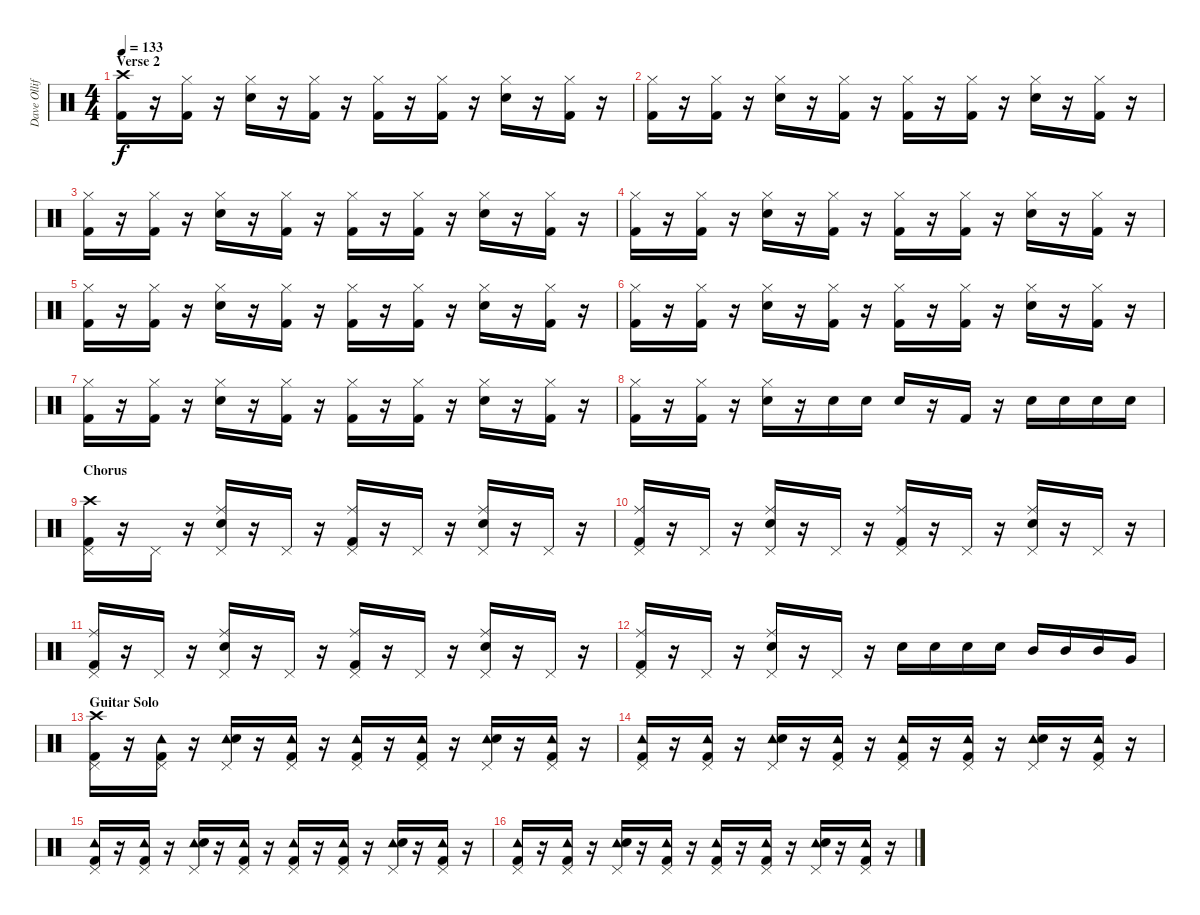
\track ("Dave Olliffe - Drums" "Dave Ollif") {instrument percussion}
\staff {score}
\articulation defaults
\ts (4 4)
\section ("" "Verse 2")
\tempo 133
\clef neutral
\ks c
("Crash high (hit)" "Kick (hit) 2").16{dy f} r.16 ("Hi-Hat (closed)" "Kick (hit) 2").16 r.16 ("Hi-Hat (closed)" "Snare (hit) 2").16 r.16 ("Hi-Hat (closed)" "Kick (hit) 2").16 r.16 ("Hi-Hat (closed)" "Kick (hit) 2").16 r.16 ("Hi-Hat (closed)" "Kick (hit) 2").16 r.16 ("Hi-Hat (closed)" "Snare (hit) 2").16 r.16 ("Hi-Hat (closed)" "Kick (hit) 2").16 r.16 |
("Hi-Hat (closed)" "Kick (hit) 2").16 r.16 ("Hi-Hat (closed)" "Kick (hit) 2").16 r.16 ("Hi-Hat (closed)" "Snare (hit) 2").16 r.16 ("Hi-Hat (closed)" "Kick (hit) 2").16 r.16 ("Hi-Hat (closed)" "Kick (hit) 2").16 r.16 ("Hi-Hat (closed)" "Kick (hit) 2").16 r.16 ("Hi-Hat (closed)" "Snare (hit) 2").16 r.16 ("Hi-Hat (closed)" "Kick (hit) 2").16 r.16 |
("Hi-Hat (closed)" "Kick (hit) 2").16 r.16 ("Hi-Hat (closed)" "Kick (hit) 2").16 r.16 ("Hi-Hat (closed)" "Snare (hit) 2").16 r.16 ("Hi-Hat (closed)" "Kick (hit) 2").16 r.16 ("Hi-Hat (closed)" "Kick (hit) 2").16 r.16 ("Hi-Hat (closed)" "Kick (hit) 2").16 r.16 ("Hi-Hat (closed)" "Snare (hit) 2").16 r.16 ("Hi-Hat (closed)" "Kick (hit) 2").16 r.16 |
("Hi-Hat (closed)" "Kick (hit) 2").16 r.16 ("Hi-Hat (closed)" "Kick (hit) 2").16 r.16 ("Hi-Hat (closed)" "Snare (hit) 2").16 r.16 ("Hi-Hat (closed)" "Kick (hit) 2").16 r.16 ("Hi-Hat (closed)" "Kick (hit) 2").16 r.16 ("Hi-Hat (closed)" "Kick (hit) 2").16 r.16 ("Hi-Hat (closed)" "Snare (hit) 2").16 r.16 ("Hi-Hat (closed)" "Kick (hit) 2").16 r.16 |
("Hi-Hat (closed)" "Kick (hit) 2").16 r.16 ("Hi-Hat (closed)" "Kick (hit) 2").16 r.16 ("Hi-Hat (closed)" "Snare (hit) 2").16 r.16 ("Hi-Hat (closed)" "Kick (hit) 2").16 r.16 ("Hi-Hat (closed)" "Kick (hit) 2").16 r.16 ("Hi-Hat (closed)" "Kick (hit) 2").16 r.16 ("Hi-Hat (closed)" "Snare (hit) 2").16 r.16 ("Hi-Hat (closed)" "Kick (hit) 2").16 r.16 |
("Hi-Hat (closed)" "Kick (hit) 2").16 r.16 ("Hi-Hat (closed)" "Kick (hit) 2").16 r.16 ("Hi-Hat (closed)" "Snare (hit) 2").16 r.16 ("Hi-Hat (closed)" "Kick (hit) 2").16 r.16 ("Hi-Hat (closed)" "Kick (hit) 2").16 r.16 ("Hi-Hat (closed)" "Kick (hit) 2").16 r.16 ("Hi-Hat (closed)" "Snare (hit) 2").16 r.16 ("Hi-Hat (closed)" "Kick (hit) 2").16 r.16 |
("Hi-Hat (closed)" "Kick (hit) 2").16 r.16 ("Hi-Hat (closed)" "Kick (hit) 2").16 r.16 ("Hi-Hat (closed)" "Snare (hit) 2").16 r.16 ("Hi-Hat (closed)" "Kick (hit) 2").16 r.16 ("Hi-Hat (closed)" "Kick (hit) 2").16 r.16 ("Hi-Hat (closed)" "Kick (hit) 2").16 r.16 ("Hi-Hat (closed)" "Snare (hit) 2").16 r.16 ("Hi-Hat (closed)" "Kick (hit) 2").16 r.16 |
("Hi-Hat (closed)" "Kick (hit) 2").16 r.16 ("Hi-Hat (closed)" "Kick (hit) 2").16 r.16 ("Hi-Hat (closed)" "Snare (hit) 2").16 r.16 "Snare (hit) 2".16 "Snare (hit) 2".16 "Snare (hit) 2".16 r.16 "Kick (hit) 2".16 r.16 "Snare (hit) 2".16 "Snare (hit) 2".16 "Snare (hit) 2".16 "Snare (hit) 2".16 |
\section ("" "Chorus")
("Crash high (hit)" "Pedal Hi-Hat (hit)" "Kick (hit) 2").16 r.16 "Pedal Hi-Hat (hit)".16 r.16 ("Ride (middle)" "Pedal Hi-Hat (hit)" "Snare (hit) 2").16 r.16 "Pedal Hi-Hat (hit)".16 r.16 ("Ride (middle)" "Pedal Hi-Hat (hit)" "Kick (hit) 2").16 r.16 "Pedal Hi-Hat (hit)".16 r.16 ("Ride (middle)" "Pedal Hi-Hat (hit)" "Snare (hit) 2").16 r.16 "Pedal Hi-Hat (hit)".16 r.16 |
("Ride (middle)" "Pedal Hi-Hat (hit)" "Kick (hit) 2").16 r.16 "Pedal Hi-Hat (hit)".16 r.16 ("Ride (middle)" "Pedal Hi-Hat (hit)" "Snare (hit) 2").16 r.16 "Pedal Hi-Hat (hit)".16 r.16 ("Ride (middle)" "Pedal Hi-Hat (hit)" "Kick (hit) 2").16 r.16 "Pedal Hi-Hat (hit)".16 r.16 ("Ride (middle)" "Pedal Hi-Hat (hit)" "Snare (hit) 2").16 r.16 "Pedal Hi-Hat (hit)".16 r.16 |
("Ride (middle)" "Pedal Hi-Hat (hit)" "Kick (hit) 2").16 r.16 "Pedal Hi-Hat (hit)".16 r.16 ("Ride (middle)" "Pedal Hi-Hat (hit)" "Snare (hit) 2").16 r.16 "Pedal Hi-Hat (hit)".16 r.16 ("Ride (middle)" "Pedal Hi-Hat (hit)" "Kick (hit) 2").16 r.16 "Pedal Hi-Hat (hit)".16 r.16 ("Ride (middle)" "Pedal Hi-Hat (hit)" "Snare (hit) 2").16 r.16 "Pedal Hi-Hat (hit)".16 r.16 |
("Ride (middle)" "Pedal Hi-Hat (hit)" "Kick (hit) 2").16 r.16 "Pedal Hi-Hat (hit)".16 r.16 ("Ride (middle)" "Pedal Hi-Hat (hit)" "Snare (hit) 2").16 r.16 "Pedal Hi-Hat (hit)".16 r.16 "Snare (hit) 2".16 "Snare (hit) 2".16 "Snare (hit) 2".16 "Snare (hit) 2".16 "Mid Tom (hit)".16 "Mid Tom (hit)".16 "Mid Tom (hit)".16 "Very Low Tom (hit)".16 |
\section ("" "Guitar Solo")
("Crash high (hit)" "Pedal Hi-Hat (hit)" "Kick (hit) 2").16 r.16 ("Tambourine (hit)" "Pedal Hi-Hat (hit)" "Kick (hit) 2").16 r.16 ("Tambourine (hit)" "Pedal Hi-Hat (hit)" "Snare (hit) 2").16 r.16 ("Tambourine (hit)" "Pedal Hi-Hat (hit)" "Kick (hit) 2").16 r.16 ("Tambourine (hit)" "Pedal Hi-Hat (hit)" "Kick (hit) 2").16 r.16 ("Tambourine (hit)" "Pedal Hi-Hat (hit)" "Kick (hit) 2").16 r.16 ("Tambourine (hit)" "Pedal Hi-Hat (hit)" "Snare (hit) 2").16 r.16 ("Tambourine (hit)" "Pedal Hi-Hat (hit)" "Kick (hit) 2").16 r.16 |
("Tambourine (hit)" "Pedal Hi-Hat (hit)" "Kick (hit) 2").16 r.16 ("Tambourine (hit)" "Pedal Hi-Hat (hit)" "Kick (hit) 2").16 r.16 ("Tambourine (hit)" "Pedal Hi-Hat (hit)" "Snare (hit) 2").16 r.16 ("Tambourine (hit)" "Pedal Hi-Hat (hit)" "Kick (hit) 2").16 r.16 ("Tambourine (hit)" "Pedal Hi-Hat (hit)" "Kick (hit) 2").16 r.16 ("Tambourine (hit)" "Pedal Hi-Hat (hit)" "Kick (hit) 2").16 r.16 ("Tambourine (hit)" "Pedal Hi-Hat (hit)" "Snare (hit) 2").16 r.16 ("Tambourine (hit)" "Pedal Hi-Hat (hit)" "Kick (hit) 2").16 r.16 |
("Tambourine (hit)" "Pedal Hi-Hat (hit)" "Kick (hit) 2").16 r.16 ("Tambourine (hit)" "Pedal Hi-Hat (hit)" "Kick (hit) 2").16 r.16 ("Tambourine (hit)" "Pedal Hi-Hat (hit)" "Snare (hit) 2").16 r.16 ("Tambourine (hit)" "Pedal Hi-Hat (hit)" "Kick (hit) 2").16 r.16 ("Tambourine (hit)" "Pedal Hi-Hat (hit)" "Kick (hit) 2").16 r.16 ("Tambourine (hit)" "Pedal Hi-Hat (hit)" "Kick (hit) 2").16 r.16 ("Tambourine (hit)" "Pedal Hi-Hat (hit)" "Snare (hit) 2").16 r.16 ("Tambourine (hit)" "Pedal Hi-Hat (hit)" "Kick (hit) 2").16 r.16 |
("Tambourine (hit)" "Pedal Hi-Hat (hit)" "Kick (hit) 2").16 r.16 ("Tambourine (hit)" "Pedal Hi-Hat (hit)" "Kick (hit) 2").16 r.16 ("Tambourine (hit)" "Pedal Hi-Hat (hit)" "Snare (hit) 2").16 r.16 ("Tambourine (hit)" "Pedal Hi-Hat (hit)" "Kick (hit) 2").16 r.16 ("Tambourine (hit)" "Pedal Hi-Hat (hit)" "Kick (hit) 2").16 r.16 ("Tambourine (hit)" "Pedal Hi-Hat (hit)" "Kick (hit) 2").16 r.16 ("Tambourine (hit)" "Pedal Hi-Hat (hit)" "Snare (hit) 2").16 r.16 ("Tambourine (hit)" "Pedal Hi-Hat (hit)" "Kick (hit) 2").16 r.16
